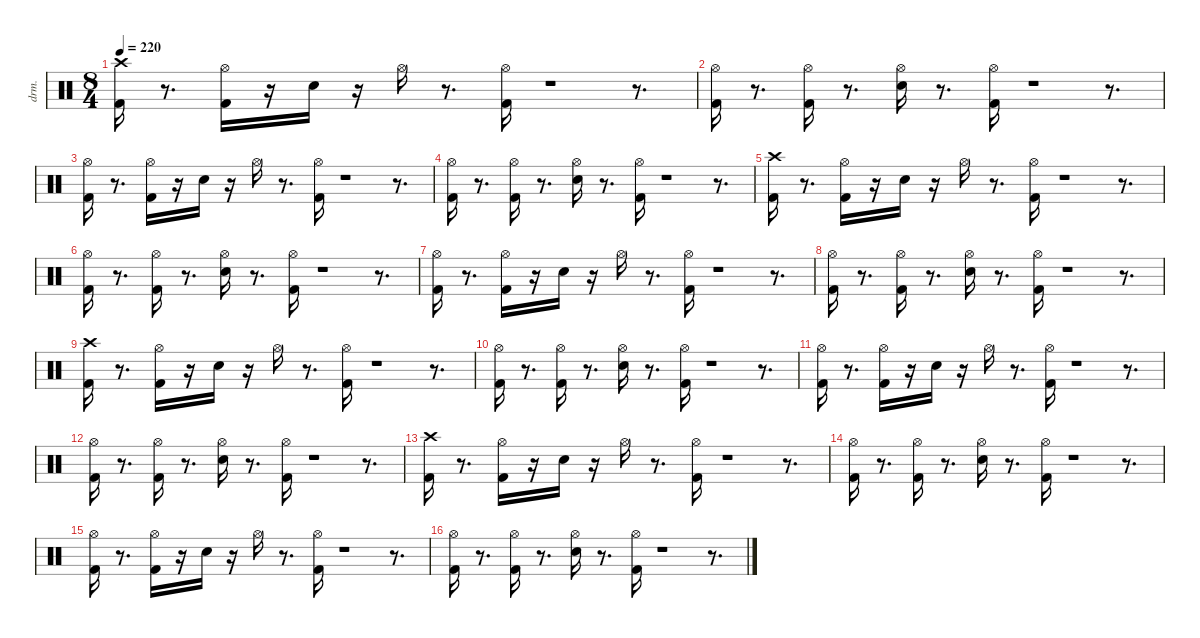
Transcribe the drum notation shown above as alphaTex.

\defaultSystemsLayout 4
\hideDynamics
\bracketExtendMode nobrackets
\otherSystemsTrackNameOrientation horizontal
\track ("EZdrummer 3" "drm.") {instrument percussion}
\staff {score}
\articulation defaults
\ts (8 4)
\tempo 220
\clef neutral
\ks c
("Kick (hit) 2" "Crash high (hit)"{acc #}).16{dy fff beam Down} r.8{d beam Down} ("Kick (hit) 2" "Hi-Hat (open)"{acc #}).16{dy ff beam Down} r.16{beam Down} "Snare (hit) 2".16{beam Down} r.16{beam Down} "Hi-Hat (open)"{acc #}.16{beam Down} r.8{d beam Down} ("Kick (hit) 2" "Hi-Hat (open)"{acc #}).16{beam Down} r.1{beam Down} r.8{d beam Down} |
("Kick (hit) 2" "Hi-Hat (open)"{acc #}).16{beam Down} r.8{d beam Down} ("Kick (hit) 2" "Hi-Hat (open)"{acc #}).16{beam Down} r.8{d beam Down} ("Snare (hit) 2" "Hi-Hat (open)"{acc #}).16{beam Down} r.8{d beam Down} ("Kick (hit) 2" "Hi-Hat (open)"{acc #}).16{dy mf beam Down} r.1{beam Down} r.8{d beam Down} |
("Kick (hit) 2" "Hi-Hat (open)"{acc #}).16{dy fff beam Down} r.8{d beam Down} ("Kick (hit) 2" "Hi-Hat (open)"{acc #}).16{dy ff beam Down} r.16{beam Down} "Snare (hit) 2".16{beam Down} r.16{beam Down} "Hi-Hat (open)"{acc #}.16{beam Down} r.8{d beam Down} ("Kick (hit) 2" "Hi-Hat (open)"{acc #}).16{beam Down} r.1{beam Down} r.8{d beam Down} |
("Kick (hit) 2" "Hi-Hat (open)"{acc #}).16{beam Down} r.8{d beam Down} ("Kick (hit) 2" "Hi-Hat (open)"{acc #}).16{beam Down} r.8{d beam Down} ("Snare (hit) 2" "Hi-Hat (open)"{acc #}).16{beam Down} r.8{d beam Down} ("Kick (hit) 2" "Hi-Hat (open)"{acc #}).16{dy mf beam Down} r.1{beam Down} r.8{d beam Down} |
("Kick (hit) 2" "Crash high (hit)"{acc #}).16{dy fff beam Down} r.8{d beam Down} ("Kick (hit) 2" "Hi-Hat (open)"{acc #}).16{dy ff beam Down} r.16{beam Down} "Snare (hit) 2".16{beam Down} r.16{beam Down} "Hi-Hat (open)"{acc #}.16{beam Down} r.8{d beam Down} ("Kick (hit) 2" "Hi-Hat (open)"{acc #}).16{beam Down} r.1{beam Down} r.8{d beam Down} |
("Kick (hit) 2" "Hi-Hat (open)"{acc #}).16{beam Down} r.8{d beam Down} ("Kick (hit) 2" "Hi-Hat (open)"{acc #}).16{beam Down} r.8{d beam Down} ("Snare (hit) 2" "Hi-Hat (open)"{acc #}).16{beam Down} r.8{d beam Down} ("Kick (hit) 2" "Hi-Hat (open)"{acc #}).16{dy mf beam Down} r.1{beam Down} r.8{d beam Down} |
("Kick (hit) 2" "Hi-Hat (open)"{acc #}).16{dy fff beam Down} r.8{d beam Down} ("Kick (hit) 2" "Hi-Hat (open)"{acc #}).16{dy ff beam Down} r.16{beam Down} "Snare (hit) 2".16{beam Down} r.16{beam Down} "Hi-Hat (open)"{acc #}.16{beam Down} r.8{d beam Down} ("Kick (hit) 2" "Hi-Hat (open)"{acc #}).16{beam Down} r.1{beam Down} r.8{d beam Down} |
("Kick (hit) 2" "Hi-Hat (open)"{acc #}).16{beam Down} r.8{d beam Down} ("Kick (hit) 2" "Hi-Hat (open)"{acc #}).16{beam Down} r.8{d beam Down} ("Snare (hit) 2" "Hi-Hat (open)"{acc #}).16{beam Down} r.8{d beam Down} ("Kick (hit) 2" "Hi-Hat (open)"{acc #}).16{dy mf beam Down} r.1{beam Down} r.8{d beam Down} |
("Kick (hit) 2" "Crash high (hit)"{acc #}).16{dy fff beam Down} r.8{d beam Down} ("Kick (hit) 2" "Hi-Hat (open)"{acc #}).16{dy ff beam Down} r.16{beam Down} "Snare (hit) 2".16{beam Down} r.16{beam Down} "Hi-Hat (open)"{acc #}.16{beam Down} r.8{d beam Down} ("Kick (hit) 2" "Hi-Hat (open)"{acc #}).16{beam Down} r.1{beam Down} r.8{d beam Down} |
("Kick (hit) 2" "Hi-Hat (open)"{acc #}).16{beam Down} r.8{d beam Down} ("Kick (hit) 2" "Hi-Hat (open)"{acc #}).16{beam Down} r.8{d beam Down} ("Snare (hit) 2" "Hi-Hat (open)"{acc #}).16{beam Down} r.8{d beam Down} ("Kick (hit) 2" "Hi-Hat (open)"{acc #}).16{dy mf beam Down} r.1{beam Down} r.8{d beam Down} |
("Kick (hit) 2" "Hi-Hat (open)"{acc #}).16{dy fff beam Down} r.8{d beam Down} ("Kick (hit) 2" "Hi-Hat (open)"{acc #}).16{dy ff beam Down} r.16{beam Down} "Snare (hit) 2".16{beam Down} r.16{beam Down} "Hi-Hat (open)"{acc #}.16{beam Down} r.8{d beam Down} ("Kick (hit) 2" "Hi-Hat (open)"{acc #}).16{beam Down} r.1{beam Down} r.8{d beam Down} |
("Kick (hit) 2" "Hi-Hat (open)"{acc #}).16{beam Down} r.8{d beam Down} ("Kick (hit) 2" "Hi-Hat (open)"{acc #}).16{beam Down} r.8{d beam Down} ("Snare (hit) 2" "Hi-Hat (open)"{acc #}).16{beam Down} r.8{d beam Down} ("Kick (hit) 2" "Hi-Hat (open)"{acc #}).16{dy mf beam Down} r.1{beam Down} r.8{d beam Down} |
("Kick (hit) 2" "Crash high (hit)"{acc #}).16{dy fff beam Down} r.8{d beam Down} ("Kick (hit) 2" "Hi-Hat (open)"{acc #}).16{dy ff beam Down} r.16{beam Down} "Snare (hit) 2".16{beam Down} r.16{beam Down} "Hi-Hat (open)"{acc #}.16{beam Down} r.8{d beam Down} ("Kick (hit) 2" "Hi-Hat (open)"{acc #}).16{beam Down} r.1{beam Down} r.8{d beam Down} |
("Kick (hit) 2" "Hi-Hat (open)"{acc #}).16{beam Down} r.8{d beam Down} ("Kick (hit) 2" "Hi-Hat (open)"{acc #}).16{beam Down} r.8{d beam Down} ("Snare (hit) 2" "Hi-Hat (open)"{acc #}).16{beam Down} r.8{d beam Down} ("Kick (hit) 2" "Hi-Hat (open)"{acc #}).16{dy mf beam Down} r.1{beam Down} r.8{d beam Down} |
("Kick (hit) 2" "Hi-Hat (open)"{acc #}).16{dy fff beam Down} r.8{d beam Down} ("Kick (hit) 2" "Hi-Hat (open)"{acc #}).16{dy ff beam Down} r.16{beam Down} "Snare (hit) 2".16{beam Down} r.16{beam Down} "Hi-Hat (open)"{acc #}.16{beam Down} r.8{d beam Down} ("Kick (hit) 2" "Hi-Hat (open)"{acc #}).16{beam Down} r.1{beam Down} r.8{d beam Down} |
("Kick (hit) 2" "Hi-Hat (open)"{acc #}).16{beam Down} r.8{d beam Down} ("Kick (hit) 2" "Hi-Hat (open)"{acc #}).16{beam Down} r.8{d beam Down} ("Snare (hit) 2" "Hi-Hat (open)"{acc #}).16{beam Down} r.8{d beam Down} ("Kick (hit) 2" "Hi-Hat (open)"{acc #}).16{dy mf beam Down} r.1{beam Down} r.8{d beam Down}
